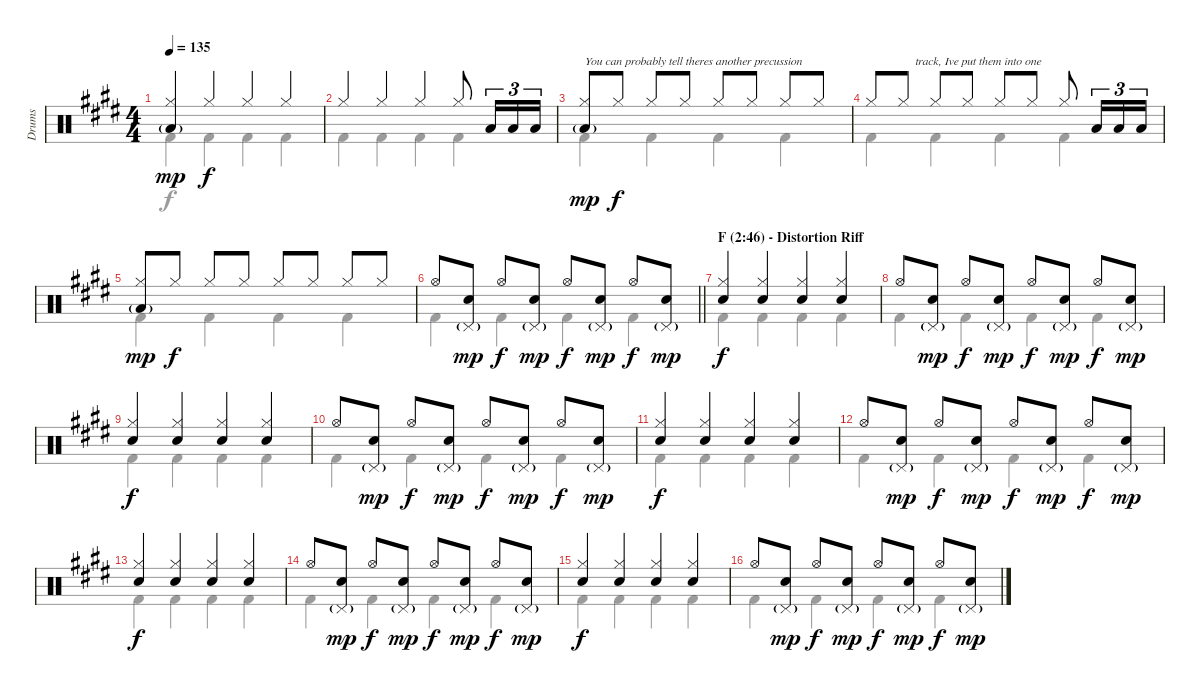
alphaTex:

\track ("Drums" "Drums") {instrument percussion}
\staff {score}
\articulation defaults
\voice
\ts (4 4)
\tempo 135
\clef neutral
\ks c#minor
("Hi-Hat (closed)" "Low Tom (hit)"{g}).4{dy mp} "Hi-Hat (closed)".4{dy f} "Hi-Hat (closed)".4 "Hi-Hat (closed)".4 |
"Hi-Hat (closed)".4 "Hi-Hat (closed)".4 "Hi-Hat (closed)".4 "Hi-Hat (closed)".8 "Low Tom (hit)".16{tu (3 2)} "Low Tom (hit)".16{tu (3 2)} "Low Tom (hit)".16{tu (3 2)} |
("Hi-Hat (closed)" "Low Tom (hit)"{g}).8{txt "You can probably tell theres another precussion" dy mp} "Hi-Hat (closed)".8{dy f} "Hi-Hat (closed)".8 "Hi-Hat (closed)".8 "Hi-Hat (closed)".8 "Hi-Hat (closed)".8 "Hi-Hat (closed)".8 "Hi-Hat (closed)".8 |
"Hi-Hat (closed)".8 "Hi-Hat (closed)".8{txt "    track, Ive put them into one"} "Hi-Hat (closed)".8 "Hi-Hat (closed)".8 "Hi-Hat (closed)".8 "Hi-Hat (closed)".8 "Hi-Hat (closed)".8 "Low Tom (hit)".16{tu (3 2)} "Low Tom (hit)".16{tu (3 2)} "Low Tom (hit)".16{tu (3 2)} |
("Hi-Hat (closed)" "Low Tom (hit)"{g}).8{dy mp} "Hi-Hat (closed)".8{dy f} "Hi-Hat (closed)".8 "Hi-Hat (closed)".8 "Hi-Hat (closed)".8 "Hi-Hat (closed)".8 "Hi-Hat (closed)".8 "Hi-Hat (closed)".8 |
\barLineRight lightlight "Hi-Hat (open)".8
("Pedal Hi-Hat (hit)"{g} "Snare (hit) 2").8{dy mp} "Hi-Hat (open)".8{dy f} ("Pedal Hi-Hat (hit)"{g} "Snare (hit) 2").8{dy mp} "Hi-Hat (open)".8{dy f} ("Pedal Hi-Hat (hit)"{g} "Snare (hit) 2").8{dy mp} "Hi-Hat (open)".8{dy f} ("Pedal Hi-Hat (hit)"{g} "Snare (hit) 2").8{dy mp} |
\section ("" "F (2:46) - Distortion Riff ")
("Hi-Hat (closed)" "Snare (hit) 2").4{dy f} ("Hi-Hat (closed)" "Snare (hit) 2").4 ("Hi-Hat (closed)" "Snare (hit) 2").4 ("Hi-Hat (closed)" "Snare (hit) 2").4 |
"Hi-Hat (open)".8 ("Pedal Hi-Hat (hit)"{g} "Snare (hit) 2").8{dy mp} "Hi-Hat (open)".8{dy f} ("Pedal Hi-Hat (hit)"{g} "Snare (hit) 2").8{dy mp} "Hi-Hat (open)".8{dy f} ("Pedal Hi-Hat (hit)"{g} "Snare (hit) 2").8{dy mp} "Hi-Hat (open)".8{dy f} ("Pedal Hi-Hat (hit)"{g} "Snare (hit) 2").8{dy mp} |
("Hi-Hat (closed)" "Snare (hit) 2").4{dy f} ("Hi-Hat (closed)" "Snare (hit) 2").4 ("Hi-Hat (closed)" "Snare (hit) 2").4 ("Hi-Hat (closed)" "Snare (hit) 2").4 |
"Hi-Hat (open)".8 ("Pedal Hi-Hat (hit)"{g} "Snare (hit) 2").8{dy mp} "Hi-Hat (open)".8{dy f} ("Pedal Hi-Hat (hit)"{g} "Snare (hit) 2").8{dy mp} "Hi-Hat (open)".8{dy f} ("Pedal Hi-Hat (hit)"{g} "Snare (hit) 2").8{dy mp} "Hi-Hat (open)".8{dy f} ("Pedal Hi-Hat (hit)"{g} "Snare (hit) 2").8{dy mp} |
("Hi-Hat (closed)" "Snare (hit) 2").4{dy f} ("Hi-Hat (closed)" "Snare (hit) 2").4 ("Hi-Hat (closed)" "Snare (hit) 2").4 ("Hi-Hat (closed)" "Snare (hit) 2").4 |
"Hi-Hat (open)".8 ("Pedal Hi-Hat (hit)"{g} "Snare (hit) 2").8{dy mp} "Hi-Hat (open)".8{dy f} ("Pedal Hi-Hat (hit)"{g} "Snare (hit) 2").8{dy mp} "Hi-Hat (open)".8{dy f} ("Pedal Hi-Hat (hit)"{g} "Snare (hit) 2").8{dy mp} "Hi-Hat (open)".8{dy f} ("Pedal Hi-Hat (hit)"{g} "Snare (hit) 2").8{dy mp} |
("Hi-Hat (closed)" "Snare (hit) 2").4{dy f} ("Hi-Hat (closed)" "Snare (hit) 2").4 ("Hi-Hat (closed)" "Snare (hit) 2").4 ("Hi-Hat (closed)" "Snare (hit) 2").4 |
"Hi-Hat (open)".8 ("Pedal Hi-Hat (hit)"{g} "Snare (hit) 2").8{dy mp} "Hi-Hat (open)".8{dy f} ("Pedal Hi-Hat (hit)"{g} "Snare (hit) 2").8{dy mp} "Hi-Hat (open)".8{dy f} ("Pedal Hi-Hat (hit)"{g} "Snare (hit) 2").8{dy mp} "Hi-Hat (open)".8{dy f} ("Pedal Hi-Hat (hit)"{g} "Snare (hit) 2").8{dy mp} |
("Hi-Hat (closed)" "Snare (hit) 2").4{dy f} ("Hi-Hat (closed)" "Snare (hit) 2").4 ("Hi-Hat (closed)" "Snare (hit) 2").4 ("Hi-Hat (closed)" "Snare (hit) 2").4 |
"Hi-Hat (open)".8 ("Pedal Hi-Hat (hit)"{g} "Snare (hit) 2").8{dy mp} "Hi-Hat (open)".8{dy f} ("Pedal Hi-Hat (hit)"{g} "Snare (hit) 2").8{dy mp} "Hi-Hat (open)".8{dy f} ("Pedal Hi-Hat (hit)"{g} "Snare (hit) 2").8{dy mp} "Hi-Hat (open)".8{dy f} ("Pedal Hi-Hat (hit)"{g} "Snare (hit) 2").8{dy mp}
\voice
\clef neutral
\ottava regular
\simile none
\ks c#minor "Kick (hit) 2".4{dy f} "Kick (hit) 2".4 "Kick (hit) 2".4 "Kick (hit) 2".4
|
"Kick (hit) 2".4 "Kick (hit) 2".4 "Kick (hit) 2".4 "Kick (hit) 2".4 |
"Kick (hit) 2".4 "Kick (hit) 2".4 "Kick (hit) 2".4 "Kick (hit) 2".4 |
"Kick (hit) 2".4 "Kick (hit) 2".4 "Kick (hit) 2".4 "Kick (hit) 2".4 |
"Kick (hit) 2".4 "Kick (hit) 2".4 "Kick (hit) 2".4 "Kick (hit) 2".4 |
\barLineRight lightlight "Kick (hit) 2".4 "Kick (hit) 2".4 "Kick (hit) 2".4 "Kick (hit) 2".4
|
"Kick (hit) 2".4 "Kick (hit) 2".4 "Kick (hit) 2".4 "Kick (hit) 2".4 |
"Kick (hit) 2".4 "Kick (hit) 2".4 "Kick (hit) 2".4 "Kick (hit) 2".4 |
"Kick (hit) 2".4 "Kick (hit) 2".4 "Kick (hit) 2".4 "Kick (hit) 2".4 |
"Kick (hit) 2".4 "Kick (hit) 2".4 "Kick (hit) 2".4 "Kick (hit) 2".4 |
"Kick (hit) 2".4 "Kick (hit) 2".4 "Kick (hit) 2".4 "Kick (hit) 2".4 |
"Kick (hit) 2".4 "Kick (hit) 2".4 "Kick (hit) 2".4 "Kick (hit) 2".4 |
"Kick (hit) 2".4 "Kick (hit) 2".4 "Kick (hit) 2".4 "Kick (hit) 2".4 |
"Kick (hit) 2".4 "Kick (hit) 2".4 "Kick (hit) 2".4 "Kick (hit) 2".4 |
"Kick (hit) 2".4 "Kick (hit) 2".4 "Kick (hit) 2".4 "Kick (hit) 2".4 |
"Kick (hit) 2".4 "Kick (hit) 2".4 "Kick (hit) 2".4 "Kick (hit) 2".4
